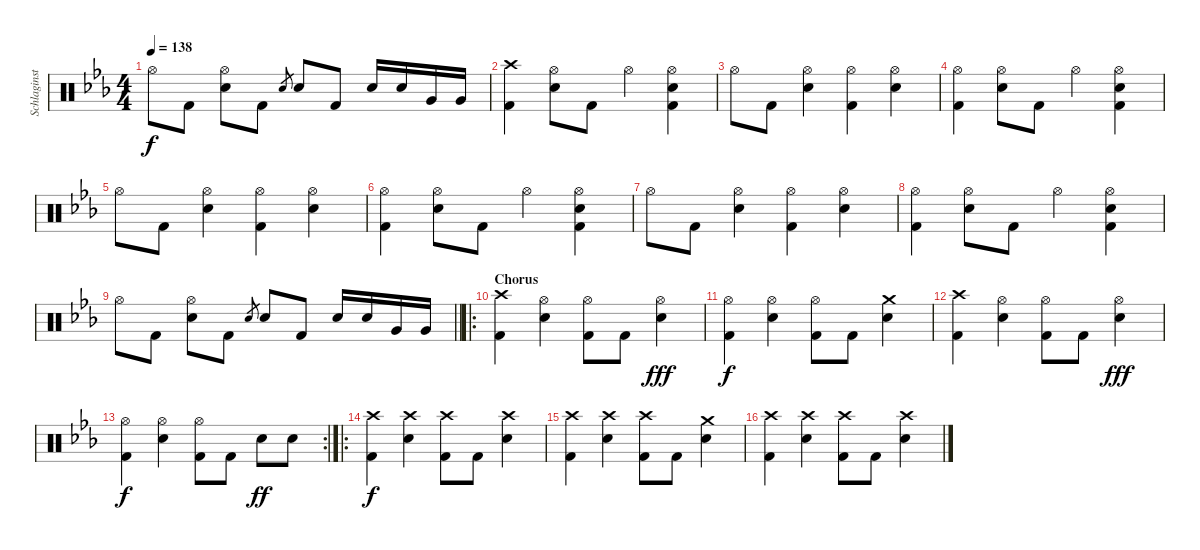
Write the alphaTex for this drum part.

\track ("Schlaginstrumente - Auswahl" "Schlaginst") {instrument percussion}
\staff {score}
\articulation defaults
\ts (4 4)
\tempo 138
\clef neutral
\ks eb "Hi-Hat (open)".8{dy f} "Kick (hit) 2".8
("Hi-Hat (open)" "Electric Snare (hit)").8 "Kick (hit) 2".8 "Electric Snare (hit)".8{gr} "Electric Snare (hit)".8 "Kick (hit) 2".8 "Electric Snare (hit)".16 "Electric Snare (hit)".16 "Very Low Tom (hit)".16 "Very Low Tom (hit)".16 |
("Crash high (hit)" "Kick (hit) 2").4 ("Hi-Hat (open)" "Electric Snare (hit)").8 "Kick (hit) 2".8 "Hi-Hat (open)".4 ("Hi-Hat (open)" "Electric Snare (hit)" "Kick (hit) 2").4 |
"Hi-Hat (open)".8 "Kick (hit) 2".8 ("Hi-Hat (open)" "Electric Snare (hit)").4 ("Hi-Hat (open)" "Kick (hit) 2").4 ("Hi-Hat (open)" "Electric Snare (hit)").4 |
("Hi-Hat (open)" "Kick (hit) 2").4 ("Hi-Hat (open)" "Electric Snare (hit)").8 "Kick (hit) 2".8 "Hi-Hat (open)".4 ("Hi-Hat (open)" "Electric Snare (hit)" "Kick (hit) 2").4 |
"Hi-Hat (open)".8 "Kick (hit) 2".8 ("Hi-Hat (open)" "Electric Snare (hit)").4 ("Hi-Hat (open)" "Kick (hit) 2").4 ("Hi-Hat (open)" "Electric Snare (hit)").4 |
("Hi-Hat (open)" "Kick (hit) 2").4 ("Hi-Hat (open)" "Electric Snare (hit)").8 "Kick (hit) 2".8 "Hi-Hat (open)".4 ("Hi-Hat (open)" "Electric Snare (hit)" "Kick (hit) 2").4 |
"Hi-Hat (open)".8 "Kick (hit) 2".8 ("Hi-Hat (open)" "Electric Snare (hit)").4 ("Hi-Hat (open)" "Kick (hit) 2").4 ("Hi-Hat (open)" "Electric Snare (hit)").4 |
("Hi-Hat (open)" "Kick (hit) 2").4 ("Hi-Hat (open)" "Electric Snare (hit)").8 "Kick (hit) 2".8 "Hi-Hat (open)".4 ("Hi-Hat (open)" "Electric Snare (hit)" "Kick (hit) 2").4 |
\barLineRight lightlight "Hi-Hat (open)".8 "Kick (hit) 2".8
("Hi-Hat (open)" "Electric Snare (hit)").8 "Kick (hit) 2".8 "Electric Snare (hit)".8{gr} "Electric Snare (hit)".8 "Kick (hit) 2".8 "Electric Snare (hit)".16 "Electric Snare (hit)".16 "Very Low Tom (hit)".16 "Very Low Tom (hit)".16 |
\ro
\section ("" "Chorus")
("Crash high (hit)" "Kick (hit) 2").4 ("Hi-Hat (open)" "Electric Snare (hit)").4 ("Hi-Hat (open)" "Kick (hit) 2").8 "Kick (hit) 2".8 ("Hi-Hat (open)" "Electric Snare (hit)").4{dy fff} |
("Hi-Hat (open)" "Kick (hit) 2").4{dy f} ("Hi-Hat (open)" "Electric Snare (hit)").4 ("Hi-Hat (open)" "Kick (hit) 2").8 "Kick (hit) 2".8 ("Crash medium (hit)" "Electric Snare (hit)").4 |
("Crash high (hit)" "Kick (hit) 2").4 ("Hi-Hat (open)" "Electric Snare (hit)").4 ("Hi-Hat (open)" "Kick (hit) 2").8 "Kick (hit) 2".8 ("Hi-Hat (open)" "Electric Snare (hit)").4{dy fff} |
\rc 2
("Hi-Hat (open)" "Kick (hit) 2").4{dy f} ("Hi-Hat (open)" "Electric Snare (hit)").4 ("Hi-Hat (open)" "Kick (hit) 2").8 "Kick (hit) 2".8 "Electric Snare (hit)".8{dy ff} "Electric Snare (hit)".8 |
\ro
("Crash high (hit)" "Kick (hit) 2").4{dy f} ("Crash high (hit)" "Electric Snare (hit)").4 ("Crash high (hit)" "Kick (hit) 2").8 "Kick (hit) 2".8 ("Crash high (hit)" "Electric Snare (hit)").4 |
("Crash high (hit)" "Kick (hit) 2").4 ("Crash high (hit)" "Electric Snare (hit)").4 ("Crash high (hit)" "Kick (hit) 2").8 "Kick (hit) 2".8 ("Crash medium (hit)" "Electric Snare (hit)").4 |
("Crash high (hit)" "Kick (hit) 2").4 ("Crash high (hit)" "Electric Snare (hit)").4 ("Crash high (hit)" "Kick (hit) 2").8 "Kick (hit) 2".8 ("Crash high (hit)" "Electric Snare (hit)").4
